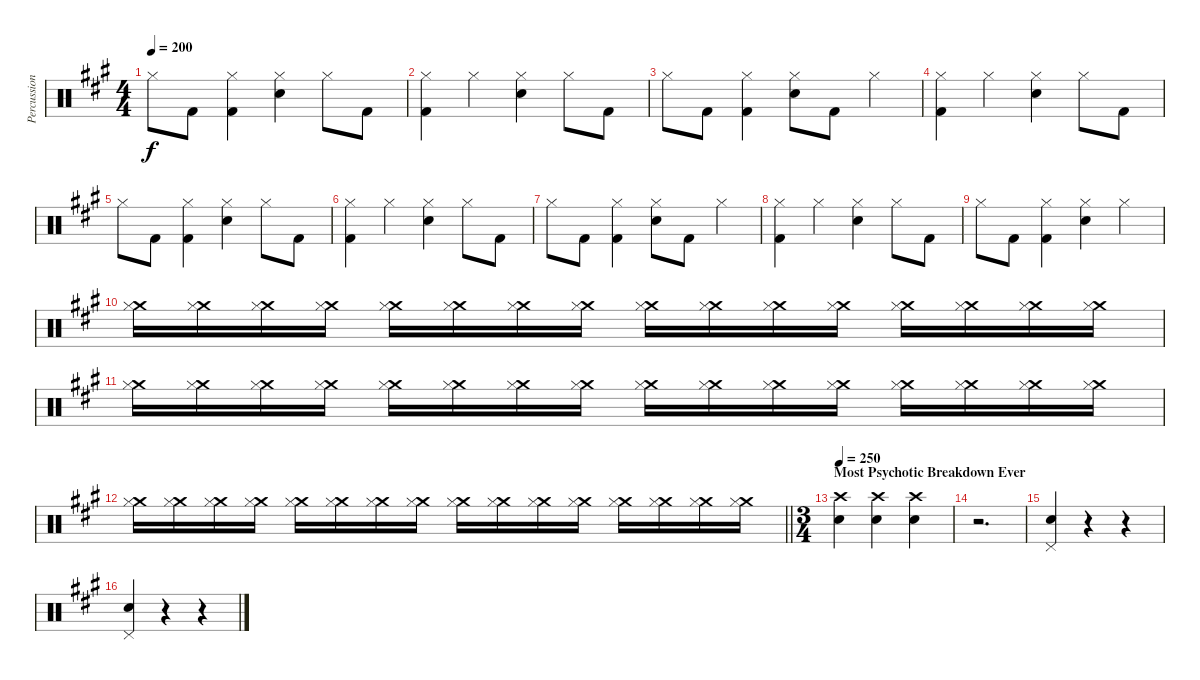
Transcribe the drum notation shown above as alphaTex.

\track ("Percussion" "Percussion") {instrument percussion}
\staff {score}
\articulation defaults
\ts (4 4)
\tempo 200
\clef neutral
\ks a "Hi-Hat (closed)".8{dy f} "Kick (hit) 2".8
("Hi-Hat (closed)" "Kick (hit) 2").4 ("Hi-Hat (closed)" "Electric Snare (hit)").4 "Hi-Hat (closed)".8 "Kick (hit) 2".8 |
("Hi-Hat (closed)" "Kick (hit) 2").4 "Hi-Hat (closed)".4 ("Hi-Hat (closed)" "Electric Snare (hit)").4 "Hi-Hat (closed)".8 "Kick (hit) 2".8 |
"Hi-Hat (closed)".8 "Kick (hit) 2".8 ("Hi-Hat (closed)" "Kick (hit) 2").4 ("Hi-Hat (closed)" "Electric Snare (hit)").8 "Kick (hit) 2".8 "Hi-Hat (closed)".4 |
("Hi-Hat (closed)" "Kick (hit) 2").4 "Hi-Hat (closed)".4 ("Hi-Hat (closed)" "Electric Snare (hit)").4 "Hi-Hat (closed)".8 "Kick (hit) 2".8 |
"Hi-Hat (closed)".8 "Kick (hit) 2".8 ("Hi-Hat (closed)" "Kick (hit) 2").4 ("Hi-Hat (closed)" "Electric Snare (hit)").4 "Hi-Hat (closed)".8 "Kick (hit) 2".8 |
("Hi-Hat (closed)" "Kick (hit) 2").4 "Hi-Hat (closed)".4 ("Hi-Hat (closed)" "Electric Snare (hit)").4 "Hi-Hat (closed)".8 "Kick (hit) 2".8 |
"Hi-Hat (closed)".8 "Kick (hit) 2".8 ("Hi-Hat (closed)" "Kick (hit) 2").4 ("Hi-Hat (closed)" "Electric Snare (hit)").8 "Kick (hit) 2".8 "Hi-Hat (closed)".4 |
("Hi-Hat (closed)" "Kick (hit) 2").4 "Hi-Hat (closed)".4 ("Hi-Hat (closed)" "Electric Snare (hit)").4 "Hi-Hat (closed)".8 "Kick (hit) 2".8 |
"Hi-Hat (closed)".8 "Kick (hit) 2".8 ("Hi-Hat (closed)" "Kick (hit) 2").4 ("Hi-Hat (closed)" "Electric Snare (hit)").4 "Hi-Hat (closed)".4 |
("Crash medium (hit)" "Hi-Hat (closed)").16 ("Crash medium (hit)" "Hi-Hat (closed)").16 ("Crash medium (hit)" "Hi-Hat (closed)").16 ("Crash medium (hit)" "Hi-Hat (closed)").16 ("Crash medium (hit)" "Hi-Hat (closed)").16 ("Crash medium (hit)" "Hi-Hat (closed)").16 ("Crash medium (hit)" "Hi-Hat (closed)").16 ("Crash medium (hit)" "Hi-Hat (closed)").16 ("Crash medium (hit)" "Hi-Hat (closed)").16 ("Crash medium (hit)" "Hi-Hat (closed)").16 ("Crash medium (hit)" "Hi-Hat (closed)").16 ("Crash medium (hit)" "Hi-Hat (closed)").16 ("Crash medium (hit)" "Hi-Hat (closed)").16 ("Crash medium (hit)" "Hi-Hat (closed)").16 ("Crash medium (hit)" "Hi-Hat (closed)").16 ("Crash medium (hit)" "Hi-Hat (closed)").16 |
("Crash medium (hit)" "Hi-Hat (closed)").16 ("Crash medium (hit)" "Hi-Hat (closed)").16 ("Crash medium (hit)" "Hi-Hat (closed)").16 ("Crash medium (hit)" "Hi-Hat (closed)").16 ("Crash medium (hit)" "Hi-Hat (closed)").16 ("Crash medium (hit)" "Hi-Hat (closed)").16 ("Crash medium (hit)" "Hi-Hat (closed)").16 ("Crash medium (hit)" "Hi-Hat (closed)").16 ("Crash medium (hit)" "Hi-Hat (closed)").16 ("Crash medium (hit)" "Hi-Hat (closed)").16 ("Crash medium (hit)" "Hi-Hat (closed)").16 ("Crash medium (hit)" "Hi-Hat (closed)").16 ("Crash medium (hit)" "Hi-Hat (closed)").16 ("Crash medium (hit)" "Hi-Hat (closed)").16 ("Crash medium (hit)" "Hi-Hat (closed)").16 ("Crash medium (hit)" "Hi-Hat (closed)").16 |
\barLineRight lightlight
("Crash medium (hit)" "Hi-Hat (closed)").16 ("Crash medium (hit)" "Hi-Hat (closed)").16 ("Crash medium (hit)" "Hi-Hat (closed)").16 ("Crash medium (hit)" "Hi-Hat (closed)").16 ("Crash medium (hit)" "Hi-Hat (closed)").16 ("Crash medium (hit)" "Hi-Hat (closed)").16 ("Crash medium (hit)" "Hi-Hat (closed)").16 ("Crash medium (hit)" "Hi-Hat (closed)").16 ("Crash medium (hit)" "Hi-Hat (closed)").16 ("Crash medium (hit)" "Hi-Hat (closed)").16 ("Crash medium (hit)" "Hi-Hat (closed)").16 ("Crash medium (hit)" "Hi-Hat (closed)").16 ("Crash medium (hit)" "Hi-Hat (closed)").16 ("Crash medium (hit)" "Hi-Hat (closed)").16 ("Crash medium (hit)" "Hi-Hat (closed)").16 ("Crash medium (hit)" "Hi-Hat (closed)").16 |
\ts (3 4)
\section ("" "Most Psychotic Breakdown Ever")
\tempo 250
\ks f#minor
("Crash high (hit)" "Electric Snare (hit)").4 ("Crash high (hit)" "Electric Snare (hit)").4 ("Crash high (hit)" "Electric Snare (hit)").4 |
r.2{d} |
("Pedal Hi-Hat (hit)" "Electric Snare (hit)").4 r.4 r.4 |
("Pedal Hi-Hat (hit)" "Electric Snare (hit)").4 r.4 r.4
